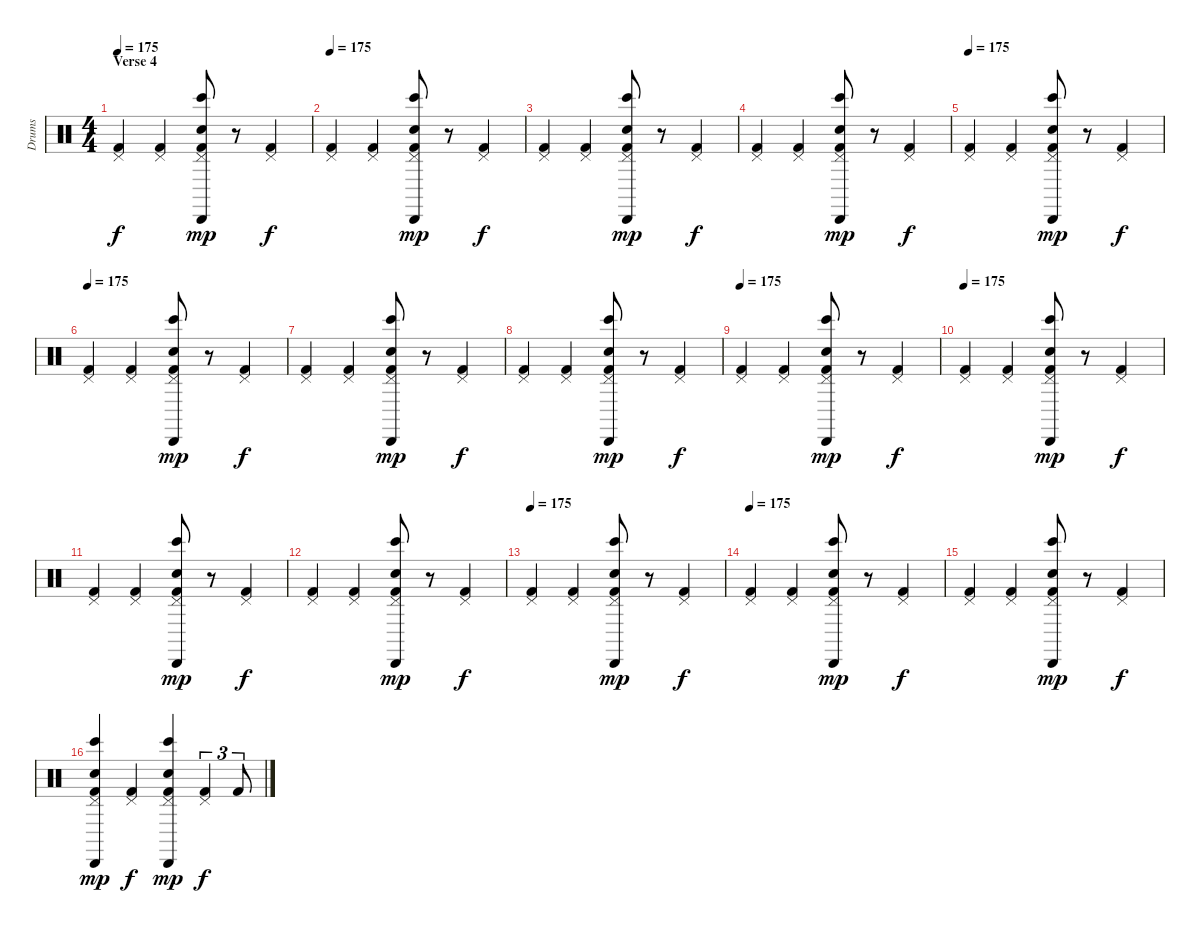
\track ("Drums" "Drums") {instrument percussion}
\staff {score}
\articulation defaults
\ts (4 4)
\section ("" "Verse 4")
\tempo 175
\clef neutral
\ks c
("Pedal Hi-Hat (hit)" "Kick (hit) 2").4{dy f} ("Pedal Hi-Hat (hit)" "Kick (hit) 2").4 ("Cabasa (hit)" "Bongo High (hit)" "Pedal Hi-Hat (hit)" "Snare (hit) 2" "Kick (hit) 2").8{dy mp} r.8{volume 0} ("Pedal Hi-Hat (hit)" "Kick (hit) 2").4{dy f volume 14} |
\tempo 175
("Pedal Hi-Hat (hit)" "Kick (hit) 2").4 ("Pedal Hi-Hat (hit)" "Kick (hit) 2").4 ("Cabasa (hit)" "Bongo High (hit)" "Pedal Hi-Hat (hit)" "Snare (hit) 2" "Kick (hit) 2").8{dy mp} r.8{volume 0} ("Pedal Hi-Hat (hit)" "Kick (hit) 2").4{dy f volume 14} |
("Pedal Hi-Hat (hit)" "Kick (hit) 2").4 ("Pedal Hi-Hat (hit)" "Kick (hit) 2").4 ("Cabasa (hit)" "Bongo High (hit)" "Pedal Hi-Hat (hit)" "Snare (hit) 2" "Kick (hit) 2").8{dy mp} r.8{volume 0} ("Pedal Hi-Hat (hit)" "Kick (hit) 2").4{dy f volume 14} |
("Pedal Hi-Hat (hit)" "Kick (hit) 2").4 ("Pedal Hi-Hat (hit)" "Kick (hit) 2").4 ("Cabasa (hit)" "Bongo High (hit)" "Pedal Hi-Hat (hit)" "Snare (hit) 2" "Kick (hit) 2").8{dy mp} r.8{volume 0} ("Pedal Hi-Hat (hit)" "Kick (hit) 2").4{dy f volume 14} |
\tempo 175
("Pedal Hi-Hat (hit)" "Kick (hit) 2").4 ("Pedal Hi-Hat (hit)" "Kick (hit) 2").4 ("Cabasa (hit)" "Bongo High (hit)" "Pedal Hi-Hat (hit)" "Snare (hit) 2" "Kick (hit) 2").8{dy mp} r.8{volume 0} ("Pedal Hi-Hat (hit)" "Kick (hit) 2").4{dy f volume 14} |
\tempo 175
("Pedal Hi-Hat (hit)" "Kick (hit) 2").4 ("Pedal Hi-Hat (hit)" "Kick (hit) 2").4 ("Cabasa (hit)" "Bongo High (hit)" "Pedal Hi-Hat (hit)" "Snare (hit) 2" "Kick (hit) 2").8{dy mp} r.8{volume 0} ("Pedal Hi-Hat (hit)" "Kick (hit) 2").4{dy f volume 14} |
("Pedal Hi-Hat (hit)" "Kick (hit) 2").4 ("Pedal Hi-Hat (hit)" "Kick (hit) 2").4 ("Cabasa (hit)" "Bongo High (hit)" "Pedal Hi-Hat (hit)" "Snare (hit) 2" "Kick (hit) 2").8{dy mp} r.8{volume 0} ("Pedal Hi-Hat (hit)" "Kick (hit) 2").4{dy f volume 14} |
("Pedal Hi-Hat (hit)" "Kick (hit) 2").4 ("Pedal Hi-Hat (hit)" "Kick (hit) 2").4 ("Cabasa (hit)" "Bongo High (hit)" "Pedal Hi-Hat (hit)" "Snare (hit) 2" "Kick (hit) 2").8{dy mp} r.8{volume 0} ("Pedal Hi-Hat (hit)" "Kick (hit) 2").4{dy f volume 14} |
\tempo 175
("Pedal Hi-Hat (hit)" "Kick (hit) 2").4 ("Pedal Hi-Hat (hit)" "Kick (hit) 2").4 ("Cabasa (hit)" "Bongo High (hit)" "Pedal Hi-Hat (hit)" "Snare (hit) 2" "Kick (hit) 2").8{dy mp} r.8{volume 0} ("Pedal Hi-Hat (hit)" "Kick (hit) 2").4{dy f volume 14} |
\tempo 175
("Pedal Hi-Hat (hit)" "Kick (hit) 2").4 ("Pedal Hi-Hat (hit)" "Kick (hit) 2").4 ("Cabasa (hit)" "Bongo High (hit)" "Pedal Hi-Hat (hit)" "Snare (hit) 2" "Kick (hit) 2").8{dy mp} r.8{volume 0} ("Pedal Hi-Hat (hit)" "Kick (hit) 2").4{dy f volume 14} |
("Pedal Hi-Hat (hit)" "Kick (hit) 2").4 ("Pedal Hi-Hat (hit)" "Kick (hit) 2").4 ("Cabasa (hit)" "Bongo High (hit)" "Pedal Hi-Hat (hit)" "Snare (hit) 2" "Kick (hit) 2").8{dy mp} r.8{volume 0} ("Pedal Hi-Hat (hit)" "Kick (hit) 2").4{dy f volume 14} |
("Pedal Hi-Hat (hit)" "Kick (hit) 2").4 ("Pedal Hi-Hat (hit)" "Kick (hit) 2").4 ("Cabasa (hit)" "Bongo High (hit)" "Pedal Hi-Hat (hit)" "Snare (hit) 2" "Kick (hit) 2").8{dy mp} r.8{volume 0} ("Pedal Hi-Hat (hit)" "Kick (hit) 2").4{dy f volume 14} |
\tempo 175
("Pedal Hi-Hat (hit)" "Kick (hit) 2").4 ("Pedal Hi-Hat (hit)" "Kick (hit) 2").4 ("Cabasa (hit)" "Bongo High (hit)" "Pedal Hi-Hat (hit)" "Snare (hit) 2" "Kick (hit) 2").8{dy mp} r.8{volume 0} ("Pedal Hi-Hat (hit)" "Kick (hit) 2").4{dy f volume 14} |
\tempo 175
("Pedal Hi-Hat (hit)" "Kick (hit) 2").4 ("Pedal Hi-Hat (hit)" "Kick (hit) 2").4 ("Cabasa (hit)" "Bongo High (hit)" "Pedal Hi-Hat (hit)" "Snare (hit) 2" "Kick (hit) 2").8{dy mp} r.8{volume 0} ("Pedal Hi-Hat (hit)" "Kick (hit) 2").4{dy f volume 14} |
("Pedal Hi-Hat (hit)" "Kick (hit) 2").4 ("Pedal Hi-Hat (hit)" "Kick (hit) 2").4 ("Cabasa (hit)" "Bongo High (hit)" "Pedal Hi-Hat (hit)" "Snare (hit) 2" "Kick (hit) 2").8{dy mp} r.8{volume 0} ("Pedal Hi-Hat (hit)" "Kick (hit) 2").4{dy f volume 14} |
("Cabasa (hit)" "Bongo High (hit)" "Pedal Hi-Hat (hit)" "Snare (hit) 2" "Kick (hit) 2").4{dy mp} ("Pedal Hi-Hat (hit)" "Kick (hit) 2").4{dy f} ("Cabasa (hit)" "Bongo High (hit)" "Pedal Hi-Hat (hit)" "Snare (hit) 2" "Kick (hit) 2").4{dy mp} ("Pedal Hi-Hat (hit)" "Kick (hit) 2").4{tu (3 2) dy f} "Kick (hit) 2".8{tu (3 2)}
